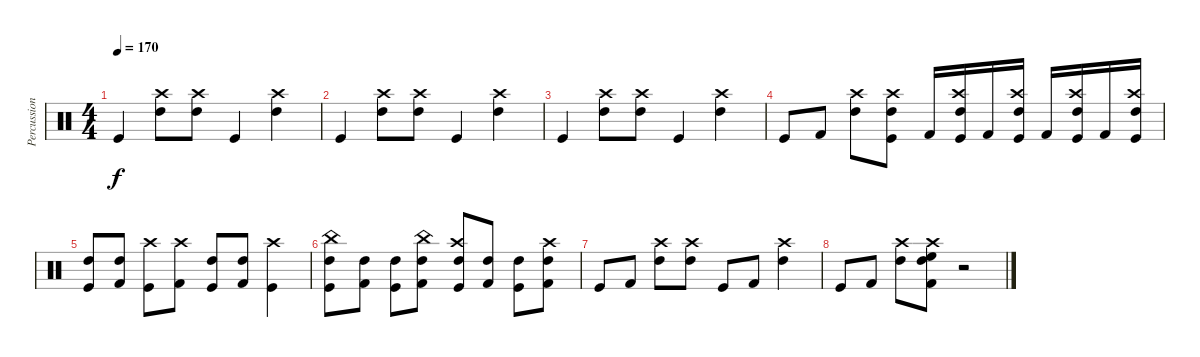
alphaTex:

\track ("Percussions" "Percussion") {instrument percussion}
\staff {score}
\articulation defaults
\ts (4 4)
\tempo 170
\clef neutral
\ks c "Kick (hit)".4{dy f}
("Crash high (hit)" "High Tom (hit)").8 ("Crash high (hit)" "High Tom (hit)").8 "Kick (hit)".4 ("Crash high (hit)" "High Tom (hit)").4 |
"Kick (hit)".4 ("Crash high (hit)" "High Tom (hit)").8 ("Crash high (hit)" "High Tom (hit)").8 "Kick (hit)".4 ("Crash high (hit)" "High Tom (hit)").4 |
"Kick (hit)".4 ("Crash high (hit)" "High Tom (hit)").8 ("Crash high (hit)" "High Tom (hit)").8 "Kick (hit)".4 ("Crash high (hit)" "High Tom (hit)").4 |
"Kick (hit)".8 "Kick (hit) 2".8 ("Crash high (hit)" "High Tom (hit)").8 ("Crash high (hit)" "Kick (hit)" "High Tom (hit)").8 "Kick (hit) 2".16 ("Crash high (hit)" "Kick (hit)" "High Tom (hit)").16 "Kick (hit) 2".16 ("Crash high (hit)" "Kick (hit)" "High Tom (hit)").16 "Kick (hit) 2".16 ("Crash high (hit)" "Kick (hit)" "High Tom (hit)").16 "Kick (hit) 2".16 ("Crash high (hit)" "Kick (hit)" "High Tom (hit)").16 |
("Kick (hit)" "High Tom (hit)").8 ("Kick (hit) 2" "High Tom (hit)").8 ("Crash high (hit)" "Kick (hit)").8 ("Crash high (hit)" "Kick (hit) 2").8 ("Kick (hit)" "High Tom (hit)").8 ("Kick (hit) 2" "High Tom (hit)").8 ("Crash high (hit)" "Kick (hit)").4 |
("China (hit)" "Kick (hit)" "High Tom (hit)").8 ("Kick (hit) 2" "High Tom (hit)").8 ("Kick (hit)" "High Tom (hit)").8 ("China (hit)" "Kick (hit) 2" "High Tom (hit)").8 ("Crash high (hit)" "Kick (hit)" "High Tom (hit)").8 ("Kick (hit) 2" "High Tom (hit)").8 ("Kick (hit)" "High Tom (hit)").8 ("Crash high (hit)" "Kick (hit) 2" "High Tom (hit)").8 |
"Kick (hit)".8 "Kick (hit) 2".8 ("Crash high (hit)" "High Tom (hit)").8 ("Crash high (hit)" "High Tom (hit)").8 "Kick (hit)".8 "Kick (hit) 2".8 ("Crash high (hit)" "High Tom (hit)").4 |
"Kick (hit)".8 "Kick (hit) 2".8 ("Crash high (hit)" "High Tom (hit)").8 ("Crash high (hit)" "Kick (hit) 2" "High Tom (hit)" "High Floor Tom (hit)").8 r.2
